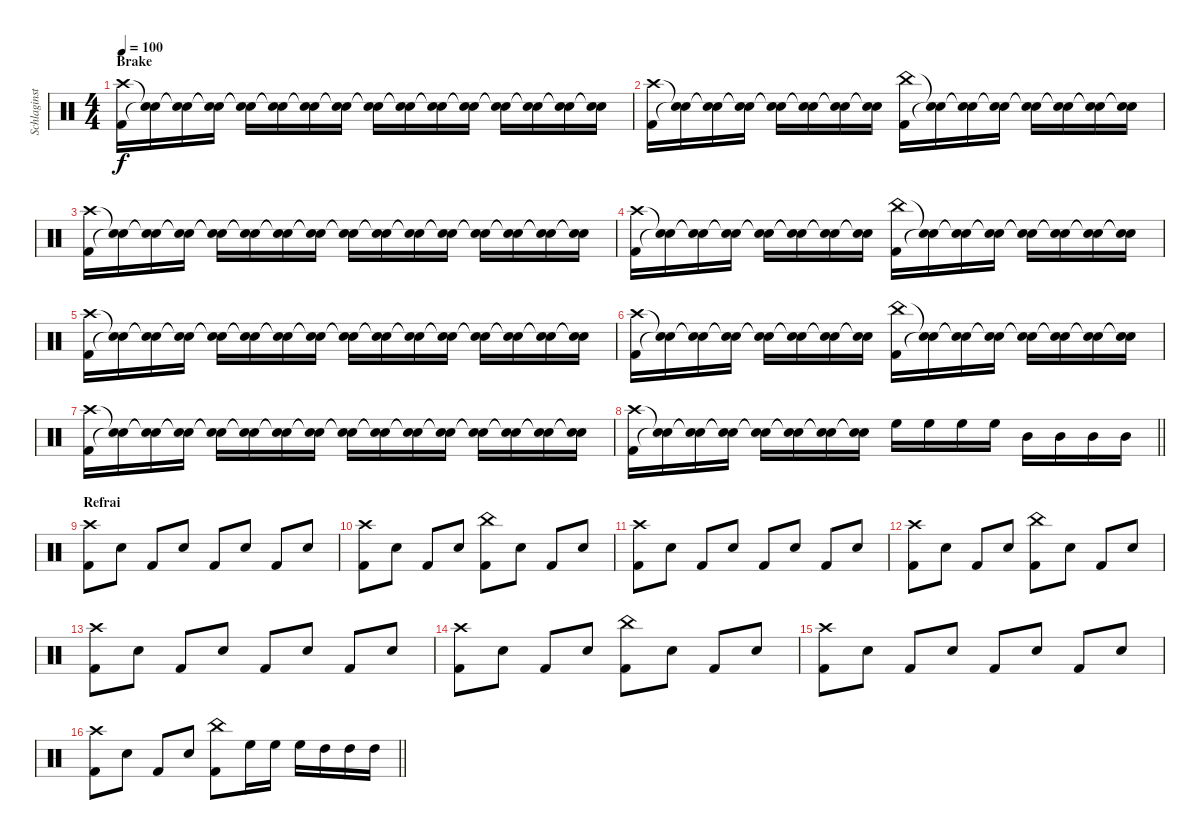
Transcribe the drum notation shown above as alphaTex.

\track ("Schlaginstrumente - Auswahl" "Schlaginst") {instrument percussion}
\staff {score}
\articulation defaults
\ts (4 4)
\section ("" "Brake")
\tempo 100
\clef neutral
\ks c
("Crash high (hit)" "Kick (hit) 2").16{dy f} ("Snare (hit)"{t} "Snare (hit)"{t}).16 ("Snare (hit)"{t} "Snare (hit)"{t}).16 ("Snare (hit)"{t} "Snare (hit)"{t}).16 ("Snare (hit)"{t} "Snare (hit)"{t}).16 ("Snare (hit)"{t} "Snare (hit)"{t}).16 ("Snare (hit)"{t} "Snare (hit)"{t}).16 ("Snare (hit)"{t} "Snare (hit)"{t}).16 ("Snare (hit)"{t} "Snare (hit)"{t}).16 ("Snare (hit)"{t} "Snare (hit)"{t}).16 ("Snare (hit)"{t} "Snare (hit)"{t}).16 ("Snare (hit)"{t} "Snare (hit)"{t}).16 ("Snare (hit)"{t} "Snare (hit)"{t}).16 ("Snare (hit)"{t} "Snare (hit)"{t}).16 ("Snare (hit)"{t} "Snare (hit)"{t}).16 ("Snare (hit)"{t} "Snare (hit)"{t}).16 |
("Crash high (hit)" "Kick (hit) 2").16 ("Snare (hit)"{t} "Snare (hit)"{t}).16 ("Snare (hit)"{t} "Snare (hit)"{t}).16 ("Snare (hit)"{t} "Snare (hit)"{t}).16 ("Snare (hit)"{t} "Snare (hit)"{t}).16 ("Snare (hit)"{t} "Snare (hit)"{t}).16 ("Snare (hit)"{t} "Snare (hit)"{t}).16 ("Snare (hit)"{t} "Snare (hit)"{t}).16 ("China (hit)" "Kick (hit) 2").16 ("Snare (hit)"{t} "Snare (hit)"{t}).16 ("Snare (hit)"{t} "Snare (hit)"{t}).16 ("Snare (hit)"{t} "Snare (hit)"{t}).16 ("Snare (hit)"{t} "Snare (hit)"{t}).16 ("Snare (hit)"{t} "Snare (hit)"{t}).16 ("Snare (hit)"{t} "Snare (hit)"{t}).16 ("Snare (hit)"{t} "Snare (hit)"{t}).16 |
("Crash high (hit)" "Kick (hit) 2").16 ("Snare (hit)"{t} "Snare (hit)"{t}).16 ("Snare (hit)"{t} "Snare (hit)"{t}).16 ("Snare (hit)"{t} "Snare (hit)"{t}).16 ("Snare (hit)"{t} "Snare (hit)"{t}).16 ("Snare (hit)"{t} "Snare (hit)"{t}).16 ("Snare (hit)"{t} "Snare (hit)"{t}).16 ("Snare (hit)"{t} "Snare (hit)"{t}).16 ("Snare (hit)"{t} "Snare (hit)"{t}).16 ("Snare (hit)"{t} "Snare (hit)"{t}).16 ("Snare (hit)"{t} "Snare (hit)"{t}).16 ("Snare (hit)"{t} "Snare (hit)"{t}).16 ("Snare (hit)"{t} "Snare (hit)"{t}).16 ("Snare (hit)"{t} "Snare (hit)"{t}).16 ("Snare (hit)"{t} "Snare (hit)"{t}).16 ("Snare (hit)"{t} "Snare (hit)"{t}).16 |
("Crash high (hit)" "Kick (hit) 2").16 ("Snare (hit)"{t} "Snare (hit)"{t}).16 ("Snare (hit)"{t} "Snare (hit)"{t}).16 ("Snare (hit)"{t} "Snare (hit)"{t}).16 ("Snare (hit)"{t} "Snare (hit)"{t}).16 ("Snare (hit)"{t} "Snare (hit)"{t}).16 ("Snare (hit)"{t} "Snare (hit)"{t}).16 ("Snare (hit)"{t} "Snare (hit)"{t}).16 ("China (hit)" "Kick (hit) 2").16 ("Snare (hit)"{t} "Snare (hit)"{t}).16 ("Snare (hit)"{t} "Snare (hit)"{t}).16 ("Snare (hit)"{t} "Snare (hit)"{t}).16 ("Snare (hit)"{t} "Snare (hit)"{t}).16 ("Snare (hit)"{t} "Snare (hit)"{t}).16 ("Snare (hit)"{t} "Snare (hit)"{t}).16 ("Snare (hit)"{t} "Snare (hit)"{t}).16 |
("Crash high (hit)" "Kick (hit) 2").16 ("Snare (hit)"{t} "Snare (hit)"{t}).16 ("Snare (hit)"{t} "Snare (hit)"{t}).16 ("Snare (hit)"{t} "Snare (hit)"{t}).16 ("Snare (hit)"{t} "Snare (hit)"{t}).16 ("Snare (hit)"{t} "Snare (hit)"{t}).16 ("Snare (hit)"{t} "Snare (hit)"{t}).16 ("Snare (hit)"{t} "Snare (hit)"{t}).16 ("Snare (hit)"{t} "Snare (hit)"{t}).16 ("Snare (hit)"{t} "Snare (hit)"{t}).16 ("Snare (hit)"{t} "Snare (hit)"{t}).16 ("Snare (hit)"{t} "Snare (hit)"{t}).16 ("Snare (hit)"{t} "Snare (hit)"{t}).16 ("Snare (hit)"{t} "Snare (hit)"{t}).16 ("Snare (hit)"{t} "Snare (hit)"{t}).16 ("Snare (hit)"{t} "Snare (hit)"{t}).16 |
("Crash high (hit)" "Kick (hit) 2").16 ("Snare (hit)"{t} "Snare (hit)"{t}).16 ("Snare (hit)"{t} "Snare (hit)"{t}).16 ("Snare (hit)"{t} "Snare (hit)"{t}).16 ("Snare (hit)"{t} "Snare (hit)"{t}).16 ("Snare (hit)"{t} "Snare (hit)"{t}).16 ("Snare (hit)"{t} "Snare (hit)"{t}).16 ("Snare (hit)"{t} "Snare (hit)"{t}).16 ("China (hit)" "Kick (hit) 2").16 ("Snare (hit)"{t} "Snare (hit)"{t}).16 ("Snare (hit)"{t} "Snare (hit)"{t}).16 ("Snare (hit)"{t} "Snare (hit)"{t}).16 ("Snare (hit)"{t} "Snare (hit)"{t}).16 ("Snare (hit)"{t} "Snare (hit)"{t}).16 ("Snare (hit)"{t} "Snare (hit)"{t}).16 ("Snare (hit)"{t} "Snare (hit)"{t}).16 |
("Crash high (hit)" "Kick (hit) 2").16 ("Snare (hit)"{t} "Snare (hit)"{t}).16 ("Snare (hit)"{t} "Snare (hit)"{t}).16 ("Snare (hit)"{t} "Snare (hit)"{t}).16 ("Snare (hit)"{t} "Snare (hit)"{t}).16 ("Snare (hit)"{t} "Snare (hit)"{t}).16 ("Snare (hit)"{t} "Snare (hit)"{t}).16 ("Snare (hit)"{t} "Snare (hit)"{t}).16 ("Snare (hit)"{t} "Snare (hit)"{t}).16 ("Snare (hit)"{t} "Snare (hit)"{t}).16 ("Snare (hit)"{t} "Snare (hit)"{t}).16 ("Snare (hit)"{t} "Snare (hit)"{t}).16 ("Snare (hit)"{t} "Snare (hit)"{t}).16 ("Snare (hit)"{t} "Snare (hit)"{t}).16 ("Snare (hit)"{t} "Snare (hit)"{t}).16 ("Snare (hit)"{t} "Snare (hit)"{t}).16 |
\barLineRight lightlight
("Crash high (hit)" "Kick (hit) 2").16 ("Snare (hit)"{t} "Snare (hit)"{t}).16 ("Snare (hit)"{t} "Snare (hit)"{t}).16 ("Snare (hit)"{t} "Snare (hit)"{t}).16 ("Snare (hit)"{t} "Snare (hit)"{t}).16 ("Snare (hit)"{t} "Snare (hit)"{t}).16 ("Snare (hit)"{t} "Snare (hit)"{t}).16 ("Snare (hit)"{t} "Snare (hit)"{t}).16 "High Floor Tom (hit)".16 "High Floor Tom (hit)".16 "High Floor Tom (hit)".16 "High Floor Tom (hit)".16 "Mid Tom (hit)".16 "Mid Tom (hit)".16 "Mid Tom (hit)".16 "Mid Tom (hit)".16 |
\section ("" "Refrai")
("Crash high (hit)" "Kick (hit) 2").8 "Snare (hit) 2".8 "Kick (hit) 2".8 "Snare (hit) 2".8 "Kick (hit) 2".8 "Snare (hit) 2".8 "Kick (hit) 2".8 "Snare (hit) 2".8 |
("Crash high (hit)" "Kick (hit) 2").8 "Snare (hit) 2".8 "Kick (hit) 2".8 "Snare (hit) 2".8 ("China (hit)" "Kick (hit) 2").8 "Snare (hit) 2".8 "Kick (hit) 2".8 "Snare (hit) 2".8 |
("Crash high (hit)" "Kick (hit) 2").8 "Snare (hit) 2".8 "Kick (hit) 2".8 "Snare (hit) 2".8 "Kick (hit) 2".8 "Snare (hit) 2".8 "Kick (hit) 2".8 "Snare (hit) 2".8 |
("Crash high (hit)" "Kick (hit) 2").8 "Snare (hit) 2".8 "Kick (hit) 2".8 "Snare (hit) 2".8 ("China (hit)" "Kick (hit) 2").8 "Snare (hit) 2".8 "Kick (hit) 2".8 "Snare (hit) 2".8 |
("Crash high (hit)" "Kick (hit) 2").8 "Snare (hit) 2".8 "Kick (hit) 2".8 "Snare (hit) 2".8 "Kick (hit) 2".8 "Snare (hit) 2".8 "Kick (hit) 2".8 "Snare (hit) 2".8 |
("Crash high (hit)" "Kick (hit) 2").8 "Snare (hit) 2".8 "Kick (hit) 2".8 "Snare (hit) 2".8 ("China (hit)" "Kick (hit) 2").8 "Snare (hit) 2".8 "Kick (hit) 2".8 "Snare (hit) 2".8 |
("Crash high (hit)" "Kick (hit) 2").8 "Snare (hit) 2".8 "Kick (hit) 2".8 "Snare (hit) 2".8 "Kick (hit) 2".8 "Snare (hit) 2".8 "Kick (hit) 2".8 "Snare (hit) 2".8 |
\barLineRight lightlight
("Crash high (hit)" "Kick (hit) 2").8 "Snare (hit) 2".8 "Kick (hit) 2".8 "Snare (hit) 2".8 ("China (hit)" "Kick (hit) 2").8 "High Floor Tom (hit)".16 "High Floor Tom (hit)".16 "High Floor Tom (hit)".16 "High Tom (hit)".16 "High Tom (hit)".16 "High Tom (hit)".16
